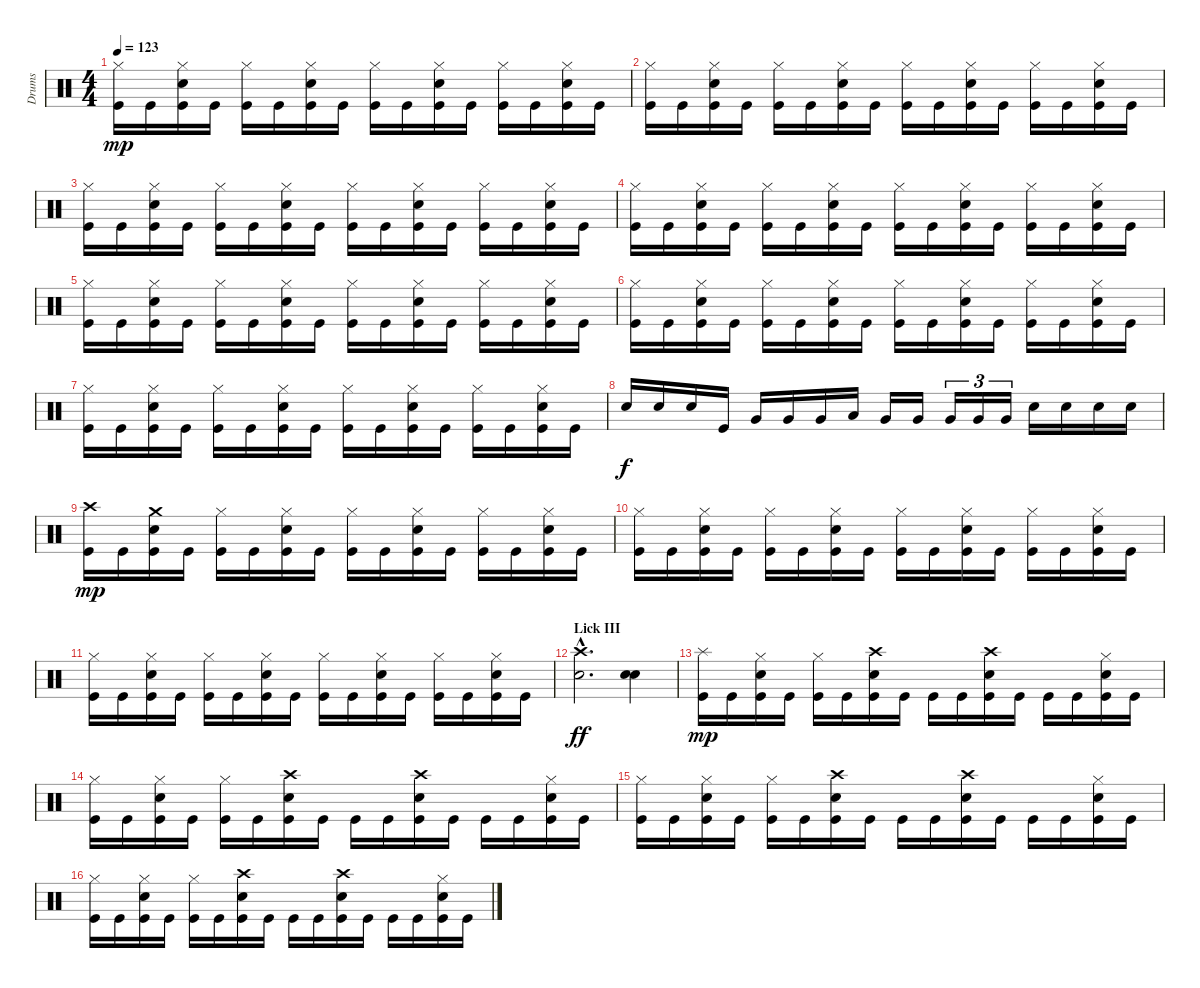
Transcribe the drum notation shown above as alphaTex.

\track ("Drums" "Drums") {instrument percussion}
\staff {score}
\articulation defaults
\ts (4 4)
\tempo 123
\clef neutral
\ks c
("Hi-Hat (closed)" "Kick (hit)").16{dy mp} "Kick (hit)".16 ("Hi-Hat (closed)" "Electric Snare (hit)" "Kick (hit)").16 "Kick (hit)".16 ("Hi-Hat (closed)" "Kick (hit)").16 "Kick (hit)".16 ("Hi-Hat (closed)" "Electric Snare (hit)" "Kick (hit)").16 "Kick (hit)".16 ("Hi-Hat (closed)" "Kick (hit)").16 "Kick (hit)".16 ("Hi-Hat (closed)" "Electric Snare (hit)" "Kick (hit)").16 "Kick (hit)".16 ("Hi-Hat (closed)" "Kick (hit)").16 "Kick (hit)".16 ("Hi-Hat (closed)" "Electric Snare (hit)" "Kick (hit)").16 "Kick (hit)".16 |
("Hi-Hat (closed)" "Kick (hit)").16 "Kick (hit)".16 ("Hi-Hat (closed)" "Electric Snare (hit)" "Kick (hit)").16 "Kick (hit)".16 ("Hi-Hat (closed)" "Kick (hit)").16 "Kick (hit)".16 ("Hi-Hat (closed)" "Electric Snare (hit)" "Kick (hit)").16 "Kick (hit)".16 ("Hi-Hat (closed)" "Kick (hit)").16 "Kick (hit)".16 ("Hi-Hat (closed)" "Electric Snare (hit)" "Kick (hit)").16 "Kick (hit)".16 ("Hi-Hat (closed)" "Kick (hit)").16 "Kick (hit)".16 ("Hi-Hat (closed)" "Electric Snare (hit)" "Kick (hit)").16 "Kick (hit)".16 |
("Hi-Hat (closed)" "Kick (hit)").16 "Kick (hit)".16 ("Hi-Hat (closed)" "Electric Snare (hit)" "Kick (hit)").16 "Kick (hit)".16 ("Hi-Hat (closed)" "Kick (hit)").16 "Kick (hit)".16 ("Hi-Hat (closed)" "Electric Snare (hit)" "Kick (hit)").16 "Kick (hit)".16 ("Hi-Hat (closed)" "Kick (hit)").16 "Kick (hit)".16 ("Hi-Hat (closed)" "Electric Snare (hit)" "Kick (hit)").16 "Kick (hit)".16 ("Hi-Hat (closed)" "Kick (hit)").16 "Kick (hit)".16 ("Hi-Hat (closed)" "Electric Snare (hit)" "Kick (hit)").16 "Kick (hit)".16 |
("Hi-Hat (closed)" "Kick (hit)").16 "Kick (hit)".16 ("Hi-Hat (closed)" "Electric Snare (hit)" "Kick (hit)").16 "Kick (hit)".16 ("Hi-Hat (closed)" "Kick (hit)").16 "Kick (hit)".16 ("Hi-Hat (closed)" "Electric Snare (hit)" "Kick (hit)").16 "Kick (hit)".16 ("Hi-Hat (closed)" "Kick (hit)").16 "Kick (hit)".16 ("Hi-Hat (closed)" "Electric Snare (hit)" "Kick (hit)").16 "Kick (hit)".16 ("Hi-Hat (closed)" "Kick (hit)").16 "Kick (hit)".16 ("Hi-Hat (closed)" "Electric Snare (hit)" "Kick (hit)").16 "Kick (hit)".16 |
("Hi-Hat (closed)" "Kick (hit)").16 "Kick (hit)".16 ("Hi-Hat (closed)" "Electric Snare (hit)" "Kick (hit)").16 "Kick (hit)".16 ("Hi-Hat (closed)" "Kick (hit)").16 "Kick (hit)".16 ("Hi-Hat (closed)" "Electric Snare (hit)" "Kick (hit)").16 "Kick (hit)".16 ("Hi-Hat (closed)" "Kick (hit)").16 "Kick (hit)".16 ("Hi-Hat (closed)" "Electric Snare (hit)" "Kick (hit)").16 "Kick (hit)".16 ("Hi-Hat (closed)" "Kick (hit)").16 "Kick (hit)".16 ("Hi-Hat (closed)" "Electric Snare (hit)" "Kick (hit)").16 "Kick (hit)".16 |
("Hi-Hat (closed)" "Kick (hit)").16 "Kick (hit)".16 ("Hi-Hat (closed)" "Electric Snare (hit)" "Kick (hit)").16 "Kick (hit)".16 ("Hi-Hat (closed)" "Kick (hit)").16 "Kick (hit)".16 ("Hi-Hat (closed)" "Electric Snare (hit)" "Kick (hit)").16 "Kick (hit)".16 ("Hi-Hat (closed)" "Kick (hit)").16 "Kick (hit)".16 ("Hi-Hat (closed)" "Electric Snare (hit)" "Kick (hit)").16 "Kick (hit)".16 ("Hi-Hat (closed)" "Kick (hit)").16 "Kick (hit)".16 ("Hi-Hat (closed)" "Electric Snare (hit)" "Kick (hit)").16 "Kick (hit)".16 |
("Hi-Hat (closed)" "Kick (hit)").16 "Kick (hit)".16 ("Hi-Hat (closed)" "Electric Snare (hit)" "Kick (hit)").16 "Kick (hit)".16 ("Hi-Hat (closed)" "Kick (hit)").16 "Kick (hit)".16 ("Hi-Hat (closed)" "Electric Snare (hit)" "Kick (hit)").16 "Kick (hit)".16 ("Hi-Hat (closed)" "Kick (hit)").16 "Kick (hit)".16 ("Hi-Hat (closed)" "Electric Snare (hit)" "Kick (hit)").16 "Kick (hit)".16 ("Hi-Hat (closed)" "Kick (hit)").16 "Kick (hit)".16 ("Hi-Hat (closed)" "Electric Snare (hit)" "Kick (hit)").16 "Kick (hit)".16 |
"Snare (hit) 2".16{dy f} "Snare (hit) 2".16 "Snare (hit) 2".16 "Kick (hit)".16 "Very Low Tom (hit)".16 "Very Low Tom (hit)".16 "Very Low Tom (hit)".16 "Low Floor Tom (hit)".16 "Very Low Tom (hit)".16 "Very Low Tom (hit)".16 "Very Low Tom (hit)".16{tu (3 2)} "Very Low Tom (hit)".16{tu (3 2)} "Very Low Tom (hit)".16{tu (3 2)} "Snare (hit) 2".16 "Snare (hit) 2".16 "Snare (hit) 2".16 "Snare (hit) 2".16 |
("Crash high (hit)" "Kick (hit)").16{dy mp} "Kick (hit)".16 ("Crash medium (hit)" "Electric Snare (hit)" "Kick (hit)").16 "Kick (hit)".16 ("Hi-Hat (closed)" "Kick (hit)").16 "Kick (hit)".16 ("Hi-Hat (closed)" "Electric Snare (hit)" "Kick (hit)").16 "Kick (hit)".16 ("Hi-Hat (closed)" "Kick (hit)").16 "Kick (hit)".16 ("Hi-Hat (closed)" "Electric Snare (hit)" "Kick (hit)").16 "Kick (hit)".16 ("Hi-Hat (closed)" "Kick (hit)").16 "Kick (hit)".16 ("Hi-Hat (closed)" "Electric Snare (hit)" "Kick (hit)").16 "Kick (hit)".16 |
("Hi-Hat (closed)" "Kick (hit)").16 "Kick (hit)".16 ("Hi-Hat (closed)" "Electric Snare (hit)" "Kick (hit)").16 "Kick (hit)".16 ("Hi-Hat (closed)" "Kick (hit)").16 "Kick (hit)".16 ("Hi-Hat (closed)" "Electric Snare (hit)" "Kick (hit)").16 "Kick (hit)".16 ("Hi-Hat (closed)" "Kick (hit)").16 "Kick (hit)".16 ("Hi-Hat (closed)" "Electric Snare (hit)" "Kick (hit)").16 "Kick (hit)".16 ("Hi-Hat (closed)" "Kick (hit)").16 "Kick (hit)".16 ("Hi-Hat (closed)" "Electric Snare (hit)" "Kick (hit)").16 "Kick (hit)".16 |
("Hi-Hat (closed)" "Kick (hit)").16 "Kick (hit)".16 ("Hi-Hat (closed)" "Electric Snare (hit)" "Kick (hit)").16 "Kick (hit)".16 ("Hi-Hat (closed)" "Kick (hit)").16 "Kick (hit)".16 ("Hi-Hat (closed)" "Electric Snare (hit)" "Kick (hit)").16 "Kick (hit)".16 ("Hi-Hat (closed)" "Kick (hit)").16 "Kick (hit)".16 ("Hi-Hat (closed)" "Electric Snare (hit)" "Kick (hit)").16 "Kick (hit)".16 ("Hi-Hat (closed)" "Kick (hit)").16 "Kick (hit)".16 ("Hi-Hat (closed)" "Electric Snare (hit)" "Kick (hit)").16 "Kick (hit)".16 |
\section ("" "Lick III")
("Crash high (hit)"{hac} "Electric Snare (hit)"{hac}).2{d dy ff} ("Electric Snare (hit)" "Snare (hit) 2").4 |
("Splash (hit)" "Kick (hit)").16{dy mp} "Kick (hit)".16 ("Hi-Hat (closed)" "Electric Snare (hit)" "Kick (hit)").16 "Kick (hit)".16 ("Hi-Hat (closed)" "Kick (hit)").16 "Kick (hit)".16 ("Crash high (hit)" "Snare (hit) 2" "Kick (hit)").16 "Kick (hit)".16 "Kick (hit)".16 "Kick (hit)".16 ("Crash high (hit)" "Snare (hit) 2" "Kick (hit)").16 "Kick (hit)".16 "Kick (hit)".16 "Kick (hit)".16 ("Hi-Hat (closed)" "Electric Snare (hit)" "Kick (hit)").16 "Kick (hit)".16 |
("Hi-Hat (closed)" "Kick (hit)").16 "Kick (hit)".16 ("Hi-Hat (closed)" "Electric Snare (hit)" "Kick (hit)").16 "Kick (hit)".16 ("Hi-Hat (closed)" "Kick (hit)").16 "Kick (hit)".16 ("Crash high (hit)" "Snare (hit) 2" "Kick (hit)").16 "Kick (hit)".16 "Kick (hit)".16 "Kick (hit)".16 ("Crash high (hit)" "Snare (hit) 2" "Kick (hit)").16 "Kick (hit)".16 "Kick (hit)".16 "Kick (hit)".16 ("Hi-Hat (closed)" "Electric Snare (hit)" "Kick (hit)").16 "Kick (hit)".16 |
("Hi-Hat (closed)" "Kick (hit)").16 "Kick (hit)".16 ("Hi-Hat (closed)" "Electric Snare (hit)" "Kick (hit)").16 "Kick (hit)".16 ("Hi-Hat (closed)" "Kick (hit)").16 "Kick (hit)".16 ("Crash high (hit)" "Snare (hit) 2" "Kick (hit)").16 "Kick (hit)".16 "Kick (hit)".16 "Kick (hit)".16 ("Crash high (hit)" "Snare (hit) 2" "Kick (hit)").16 "Kick (hit)".16 "Kick (hit)".16 "Kick (hit)".16 ("Hi-Hat (closed)" "Electric Snare (hit)" "Kick (hit)").16 "Kick (hit)".16 |
("Hi-Hat (closed)" "Kick (hit)").16 "Kick (hit)".16 ("Hi-Hat (closed)" "Electric Snare (hit)" "Kick (hit)").16 "Kick (hit)".16 ("Hi-Hat (closed)" "Kick (hit)").16 "Kick (hit)".16 ("Crash high (hit)" "Snare (hit) 2" "Kick (hit)").16 "Kick (hit)".16 "Kick (hit)".16 "Kick (hit)".16 ("Crash high (hit)" "Snare (hit) 2" "Kick (hit)").16 "Kick (hit)".16 "Kick (hit)".16 "Kick (hit)".16 ("Hi-Hat (closed)" "Electric Snare (hit)" "Kick (hit)").16 "Kick (hit)".16
